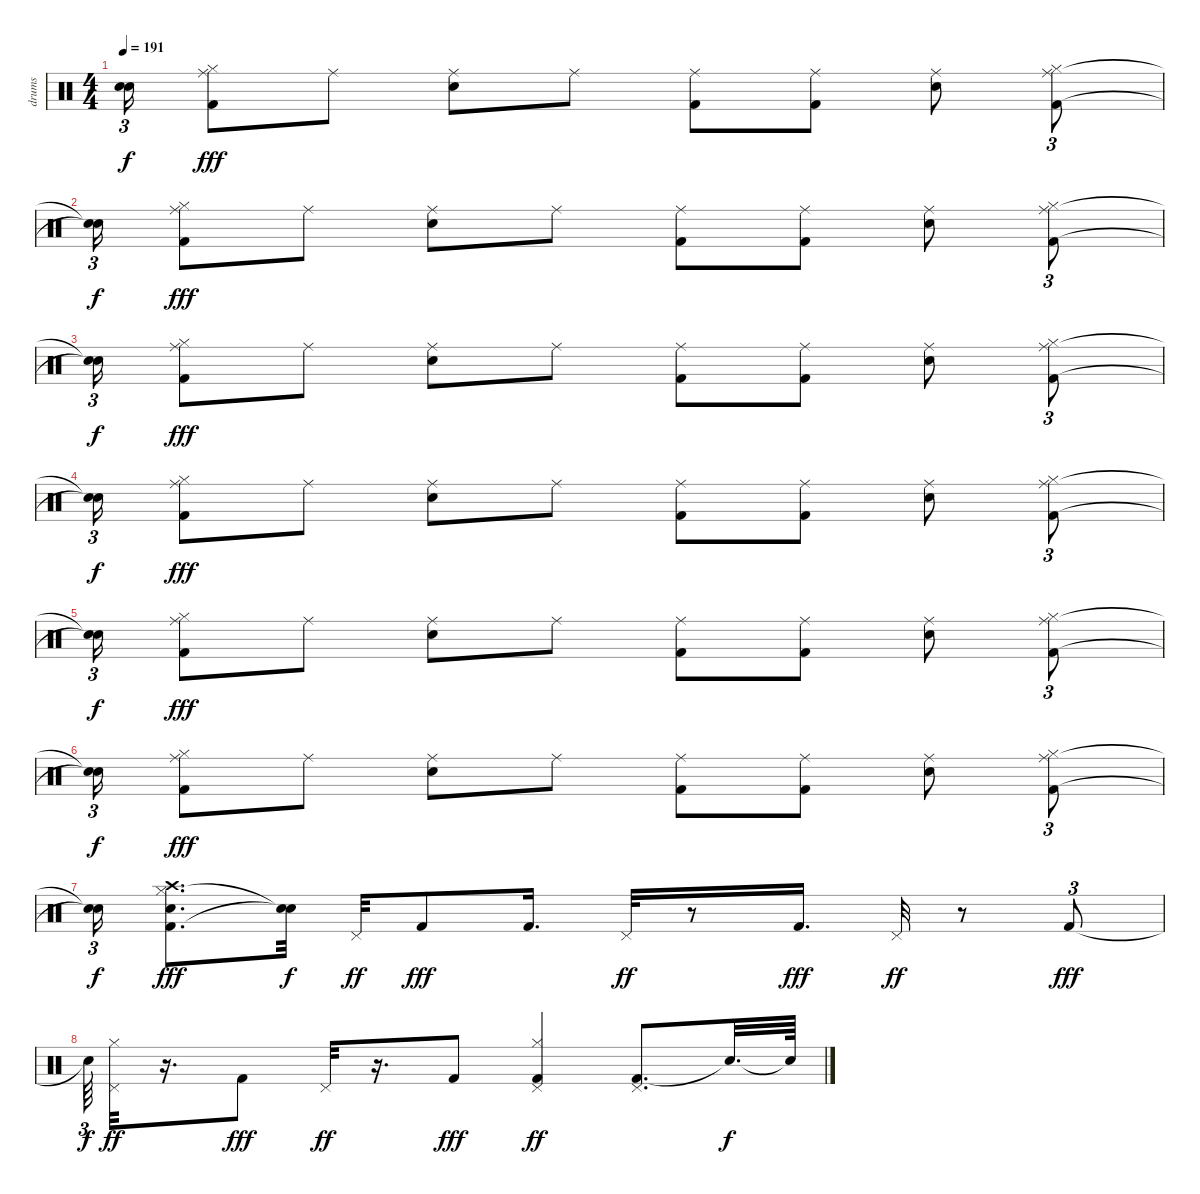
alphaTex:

\track ("drums               " "drums     ") {instrument percussion}
\staff {score}
\articulation defaults
\ts (4 4)
\tempo 191
\clef neutral
\ks c
("Snare (hit)"{t} "Snare (hit)"{t}).16{tu (3 2) dy f} ("Kick (hit) 2" "Ride (middle)" "Hi-Hat (closed)").8{dy fff} "Ride (middle)".8 ("Snare (hit) 2" "Ride (middle)").8 "Ride (middle)".8 ("Kick (hit) 2" "Ride (middle)").8 ("Kick (hit) 2" "Ride (middle)").8 ("Snare (hit) 2" "Ride (middle)").8 ("Kick (hit) 2" "Ride (middle)" "Hi-Hat (closed)").8{tu (3 2)} |
("Snare (hit)"{t} "Snare (hit)"{t}).16{tu (3 2) dy f} ("Kick (hit) 2" "Ride (middle)" "Hi-Hat (closed)").8{dy fff} "Ride (middle)".8 ("Snare (hit) 2" "Ride (middle)").8 "Ride (middle)".8 ("Kick (hit) 2" "Ride (middle)").8 ("Kick (hit) 2" "Ride (middle)").8 ("Snare (hit) 2" "Ride (middle)").8 ("Kick (hit) 2" "Ride (middle)" "Hi-Hat (closed)").8{tu (3 2)} |
("Snare (hit)"{t} "Snare (hit)"{t}).16{tu (3 2) dy f} ("Kick (hit) 2" "Ride (middle)" "Hi-Hat (closed)").8{dy fff} "Ride (middle)".8 ("Snare (hit) 2" "Ride (middle)").8 "Ride (middle)".8 ("Kick (hit) 2" "Ride (middle)").8 ("Kick (hit) 2" "Ride (middle)").8 ("Snare (hit) 2" "Ride (middle)").8 ("Kick (hit) 2" "Ride (middle)" "Hi-Hat (closed)").8{tu (3 2)} |
("Snare (hit)"{t} "Snare (hit)"{t}).16{tu (3 2) dy f} ("Kick (hit) 2" "Ride (middle)" "Hi-Hat (closed)").8{dy fff} "Ride (middle)".8 ("Snare (hit) 2" "Ride (middle)").8 "Ride (middle)".8 ("Kick (hit) 2" "Ride (middle)").8 ("Kick (hit) 2" "Ride (middle)").8 ("Snare (hit) 2" "Ride (middle)").8 ("Kick (hit) 2" "Ride (middle)" "Hi-Hat (closed)").8{tu (3 2)} |
("Snare (hit)"{t} "Snare (hit)"{t}).16{tu (3 2) dy f} ("Kick (hit) 2" "Ride (middle)" "Hi-Hat (closed)").8{dy fff} "Ride (middle)".8 ("Snare (hit) 2" "Ride (middle)").8 "Ride (middle)".8 ("Kick (hit) 2" "Ride (middle)").8 ("Kick (hit) 2" "Ride (middle)").8 ("Snare (hit) 2" "Ride (middle)").8 ("Kick (hit) 2" "Ride (middle)" "Hi-Hat (closed)").8{tu (3 2)} |
("Snare (hit)"{t} "Snare (hit)"{t}).16{tu (3 2) dy f} ("Kick (hit) 2" "Ride (middle)" "Hi-Hat (closed)").8{dy fff} "Ride (middle)".8 ("Snare (hit) 2" "Ride (middle)").8 "Ride (middle)".8 ("Kick (hit) 2" "Ride (middle)").8 ("Kick (hit) 2" "Ride (middle)").8 ("Snare (hit) 2" "Ride (middle)").8 ("Kick (hit) 2" "Ride (middle)" "Hi-Hat (closed)").8{tu (3 2)} |
("Snare (hit)"{t} "Snare (hit)"{t}).16{tu (3 2) dy f} ("Kick (hit) 2" "Hi-Hat (closed)" "Snare (hit) 2" "Crash high (hit)").8{d dy fff} ("Snare (hit)"{t} "Snare (hit)"{t}).32{dy f} "Pedal Hi-Hat (hit)".32{dy ff} "Kick (hit) 2".8{dy fff} "Kick (hit) 2".16{d} "Pedal Hi-Hat (hit)".32{dy ff} r.8 "Kick (hit) 2".16{d dy fff} "Pedal Hi-Hat (hit)".32{dy ff} r.8 "Kick (hit) 2".8{tu (3 2) dy fff} |
"Snare (hit)"{t}.64{tu (3 2) dy f} ("Hi-Hat (closed)" "Pedal Hi-Hat (hit)").32{dy ff} r.16{d} "Kick (hit) 2".8{dy fff} "Pedal Hi-Hat (hit)".32{dy ff} r.16{d} "Kick (hit) 2".8{dy fff} ("Kick (hit) 2" "Hi-Hat (closed)" "Pedal Hi-Hat (hit)").4{dy ff} ("Kick (hit) 2" "Pedal Hi-Hat (hit)").8{d} "Snare (hit)"{t}.32{d dy f} "Snare (hit)"{t}.64
